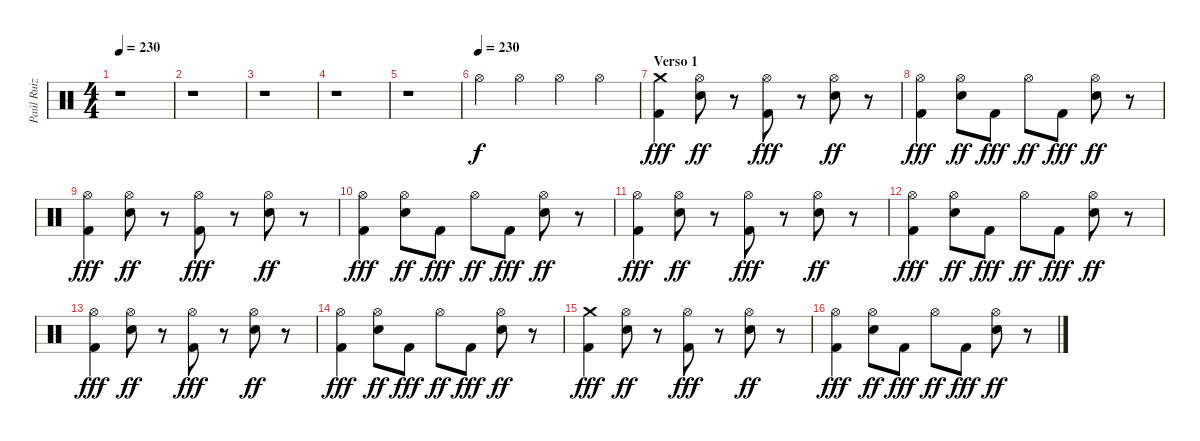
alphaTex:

\track ("Paúl Ruiz" "Paúl Ruiz") {instrument percussion}
\staff {score}
\articulation defaults
\ts (4 4)
\tempo 230
\tempo 150
\tempo 230
\clef neutral
\ks c
r.1{dy f} |
r.1 |
r.1 |
r.1 |
r.1 |
\tempo (230)
"Hi-Hat (open)".4 "Hi-Hat (open)".4 "Hi-Hat (open)".4 "Hi-Hat (open)".4 |
\section ("" "Verso 1")
("Crash medium (hit)" "Kick (hit) 2").4{dy fff} ("Hi-Hat (open)" "Snare (hit) 2").8{dy ff} r.8 ("Hi-Hat (open)" "Kick (hit) 2").8{dy fff} r.8 ("Hi-Hat (open)" "Snare (hit) 2").8{dy ff} r.8 |
("Hi-Hat (open)" "Kick (hit) 2").4{dy fff} ("Hi-Hat (open)" "Snare (hit) 2").8{dy ff} "Kick (hit) 2".8{dy fff} "Hi-Hat (open)".8{dy ff} "Kick (hit) 2".8{dy fff} ("Hi-Hat (open)" "Snare (hit) 2").8{dy ff} r.8 |
("Hi-Hat (open)" "Kick (hit) 2").4{dy fff} ("Hi-Hat (open)" "Snare (hit) 2").8{dy ff} r.8 ("Hi-Hat (open)" "Kick (hit) 2").8{dy fff} r.8 ("Hi-Hat (open)" "Snare (hit) 2").8{dy ff} r.8 |
("Hi-Hat (open)" "Kick (hit) 2").4{dy fff} ("Hi-Hat (open)" "Snare (hit) 2").8{dy ff} "Kick (hit) 2".8{dy fff} "Hi-Hat (open)".8{dy ff} "Kick (hit) 2".8{dy fff} ("Hi-Hat (open)" "Snare (hit) 2").8{dy ff} r.8 |
("Hi-Hat (open)" "Kick (hit) 2").4{dy fff} ("Hi-Hat (open)" "Snare (hit) 2").8{dy ff} r.8 ("Hi-Hat (open)" "Kick (hit) 2").8{dy fff} r.8 ("Hi-Hat (open)" "Snare (hit) 2").8{dy ff} r.8 |
("Hi-Hat (open)" "Kick (hit) 2").4{dy fff} ("Hi-Hat (open)" "Snare (hit) 2").8{dy ff} "Kick (hit) 2".8{dy fff} "Hi-Hat (open)".8{dy ff} "Kick (hit) 2".8{dy fff} ("Hi-Hat (open)" "Snare (hit) 2").8{dy ff} r.8 |
("Hi-Hat (open)" "Kick (hit) 2").4{dy fff} ("Hi-Hat (open)" "Snare (hit) 2").8{dy ff} r.8 ("Hi-Hat (open)" "Kick (hit) 2").8{dy fff} r.8 ("Hi-Hat (open)" "Snare (hit) 2").8{dy ff} r.8 |
("Hi-Hat (open)" "Kick (hit) 2").4{dy fff} ("Hi-Hat (open)" "Snare (hit) 2").8{dy ff} "Kick (hit) 2".8{dy fff} "Hi-Hat (open)".8{dy ff} "Kick (hit) 2".8{dy fff} ("Hi-Hat (open)" "Snare (hit) 2").8{dy ff} r.8 |
("Crash medium (hit)" "Kick (hit) 2").4{dy fff} ("Hi-Hat (open)" "Snare (hit) 2").8{dy ff} r.8 ("Hi-Hat (open)" "Kick (hit) 2").8{dy fff} r.8 ("Hi-Hat (open)" "Snare (hit) 2").8{dy ff} r.8 |
("Hi-Hat (open)" "Kick (hit) 2").4{dy fff} ("Hi-Hat (open)" "Snare (hit) 2").8{dy ff} "Kick (hit) 2".8{dy fff} "Hi-Hat (open)".8{dy ff} "Kick (hit) 2".8{dy fff} ("Hi-Hat (open)" "Snare (hit) 2").8{dy ff} r.8
